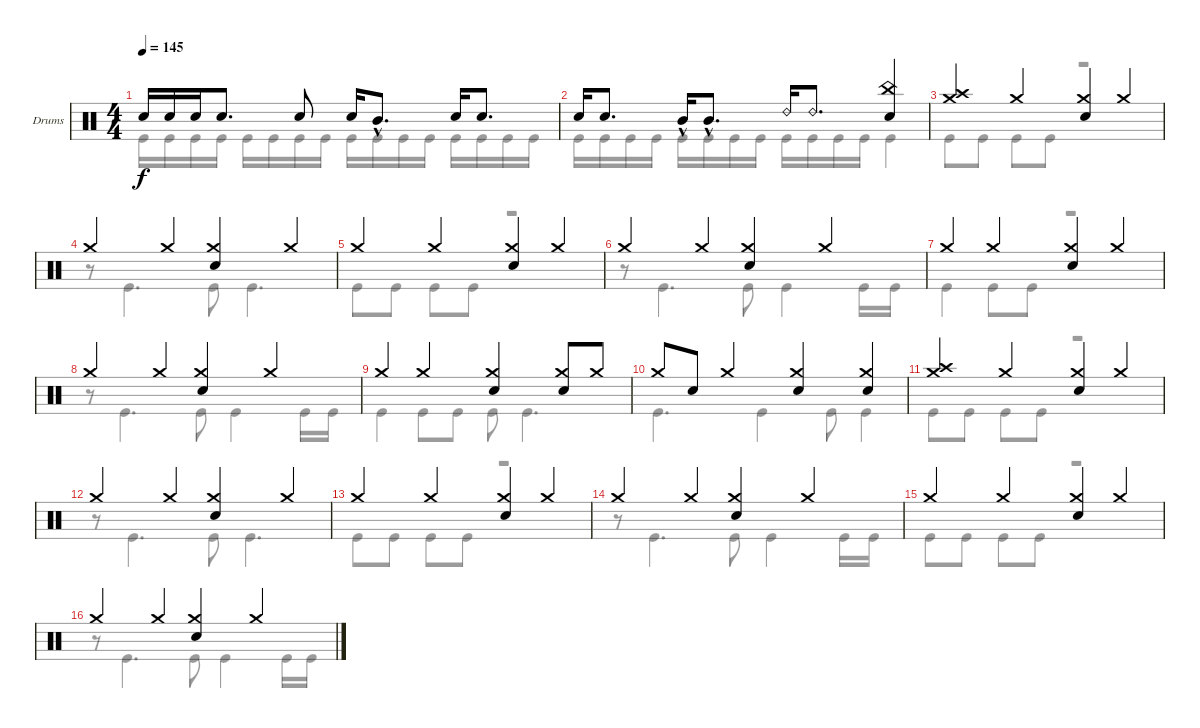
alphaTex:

\defaultSystemsLayout 4
\bracketExtendMode groupsimilarinstruments
\firstSystemTrackNameOrientation horizontal
\otherSystemsTrackNameOrientation horizontal
\track ("Drumkit" "Drums") {instrument percussion}
\staff {score}
\articulation defaults
\voice
\ts (4 4)
\tempo 145
\clef neutral
\scale
1.02648
\ks c "Snare (hit) 2".16{dy f} "Snare (hit) 2".16 "Snare (hit) 2".16 "Snare (hit) 2".8{d} "Snare (hit) 2".8 "Snare (hit) 2".16 "Mid Tom (hit)"{hac}.8{d} "Snare (hit) 2".16 "Snare (hit) 2".8{d}
|
\scale
0.973518 "Snare (hit) 2".16 "Snare (hit) 2".8{d} "Mid Tom (hit)"{hac}.16 "Mid Tom (hit)"{hac}.8{d} "Ride (bell) 2".16 "Ride (bell) 2".8{d} ("Snare (hit) 2" "China (hit)").4 |
\scale
1.02648 ("Crash medium (hit)" "Crash high (hit)").4 "Crash medium (hit)".4 ("Crash medium (hit)" "Snare (hit) 2").4 "Crash medium (hit)".4 |
\scale
0.973518 "Crash medium (hit)".4 "Crash medium (hit)".4 ("Crash medium (hit)" "Snare (hit) 2").4 "Crash medium (hit)".4 |
\scale
1.02648 "Crash medium (hit)".4 "Crash medium (hit)".4 ("Crash medium (hit)" "Snare (hit) 2").4 "Crash medium (hit)".4 |
\scale
0.973518 "Crash medium (hit)".4 "Crash medium (hit)".4 ("Crash medium (hit)" "Snare (hit) 2").4 "Crash medium (hit)".4 |
\scale
1.02648 "Crash medium (hit)".4 "Crash medium (hit)".4 ("Crash medium (hit)" "Snare (hit) 2").4 "Crash medium (hit)".4 |
\scale
0.973518 "Crash medium (hit)".4 "Crash medium (hit)".4 ("Crash medium (hit)" "Snare (hit) 2").4 "Crash medium (hit)".4 |
\scale
1.02648 "Crash medium (hit)".4 "Crash medium (hit)".4 ("Crash medium (hit)" "Snare (hit) 2").4 ("Snare (hit) 2" "Crash medium (hit)").8 "Crash medium (hit)".8 |
\scale
0.973518 "Crash medium (hit)".8 "Snare (hit) 2".8 "Crash medium (hit)".4 ("Snare (hit) 2" "Crash medium (hit)").4 ("Snare (hit) 2" "Crash medium (hit)").4 |
\scale
1.02648 ("Crash medium (hit)" "Crash high (hit)").4 "Crash medium (hit)".4 ("Crash medium (hit)" "Snare (hit) 2").4 "Crash medium (hit)".4 |
\scale
0.973518 "Crash medium (hit)".4 "Crash medium (hit)".4 ("Crash medium (hit)" "Snare (hit) 2").4 "Crash medium (hit)".4 |
\scale
1.02648 "Crash medium (hit)".4 "Crash medium (hit)".4 ("Crash medium (hit)" "Snare (hit) 2").4 "Crash medium (hit)".4 |
\scale
0.973518 "Crash medium (hit)".4 "Crash medium (hit)".4 ("Crash medium (hit)" "Snare (hit) 2").4 "Crash medium (hit)".4 |
\scale
1.02648 "Crash medium (hit)".4 "Crash medium (hit)".4 ("Crash medium (hit)" "Snare (hit) 2").4 "Crash medium (hit)".4 |
\scale
0.973518 "Crash medium (hit)".4 "Crash medium (hit)".4 ("Crash medium (hit)" "Snare (hit) 2").4 "Crash medium (hit)".4
\voice
\clef neutral
\ottava regular
\simile none
\scale
1.02648
\ks c "Kick (hit)".16{dy f} "Kick (hit)".16 "Kick (hit)".16 "Kick (hit)".16 "Kick (hit)".16 "Kick (hit)".16 "Kick (hit)".16 "Kick (hit)".16 "Kick (hit)".16 "Kick (hit)".16 "Kick (hit)".16 "Kick (hit)".16 "Kick (hit)".16 "Kick (hit)".16 "Kick (hit)".16 "Kick (hit)".16
|
\scale
0.973518 "Kick (hit)".16 "Kick (hit)".16 "Kick (hit)".16 "Kick (hit)".16 "Kick (hit)".16 "Kick (hit)".16 "Kick (hit)".16 "Kick (hit)".16 "Kick (hit)".16 "Kick (hit)".16 "Kick (hit)".16 "Kick (hit)".16 "Kick (hit)".4 |
\scale
1.02648 "Kick (hit)".8 "Kick (hit)".8 "Kick (hit)".8 "Kick (hit)".8 r.2 |
\scale
0.973518 r.8 "Kick (hit)".4{d} "Kick (hit)".8 "Kick (hit)".4{d} |
\scale
1.02648 "Kick (hit)".8 "Kick (hit)".8 "Kick (hit)".8 "Kick (hit)".8 r.2 |
\scale
0.973518 r.8 "Kick (hit)".4{d} "Kick (hit)".8 "Kick (hit)".4 "Kick (hit)".16 "Kick (hit)".16 |
\scale
1.02648 "Kick (hit)".4 "Kick (hit)".8 "Kick (hit)".8 r.2 |
\scale
0.973518 r.8 "Kick (hit)".4{d} "Kick (hit)".8 "Kick (hit)".4 "Kick (hit)".16 "Kick (hit)".16 |
\scale
1.02648 "Kick (hit)".4 "Kick (hit)".8 "Kick (hit)".8 "Kick (hit)".8 "Kick (hit)".4{d} |
\scale
0.973518 "Kick (hit)".4{d} "Kick (hit)".4 "Kick (hit)".8 "Kick (hit)".4 |
\scale
1.02648 "Kick (hit)".8 "Kick (hit)".8 "Kick (hit)".8 "Kick (hit)".8 r.2 |
\scale
0.973518 r.8 "Kick (hit)".4{d} "Kick (hit)".8 "Kick (hit)".4{d} |
\scale
1.02648 "Kick (hit)".8 "Kick (hit)".8 "Kick (hit)".8 "Kick (hit)".8 r.2 |
\scale
0.973518 r.8 "Kick (hit)".4{d} "Kick (hit)".8 "Kick (hit)".4 "Kick (hit)".16 "Kick (hit)".16 |
\scale
1.02648 "Kick (hit)".8 "Kick (hit)".8 "Kick (hit)".8 "Kick (hit)".8 r.2 |
\scale
0.973518 r.8 "Kick (hit)".4{d} "Kick (hit)".8 "Kick (hit)".4 "Kick (hit)".16 "Kick (hit)".16
